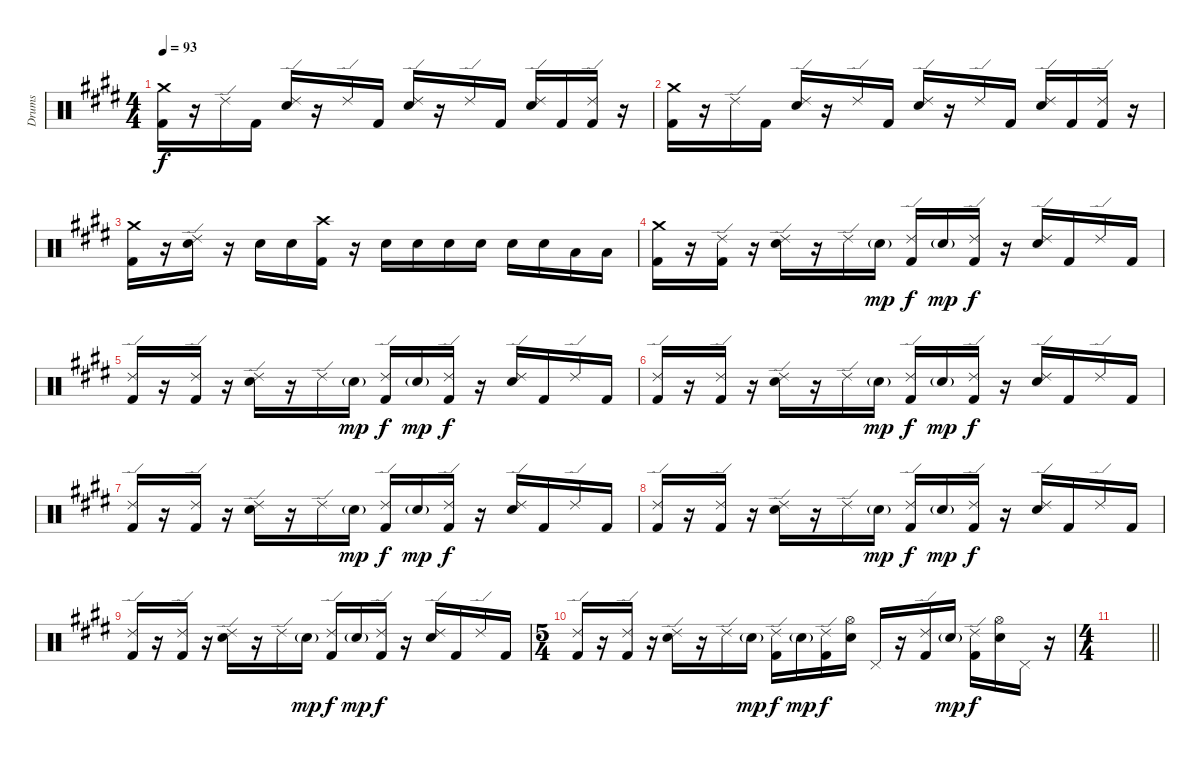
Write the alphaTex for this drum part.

\track ("Drums" "Drums") {instrument percussion}
\staff {score}
\articulation defaults
\ts (4 4)
\tempo 93
\clef neutral
\ks e
("Crash medium (hit)" "Kick (hit) 2").16{dy f} r.16 "Ride (edge) 2".16 "Kick (hit) 2".16 ("Ride (edge) 2" "Snare (hit) 2").16 r.16 "Ride (edge) 2".16 "Kick (hit) 2".16 ("Ride (edge) 2" "Snare (hit) 2").16 r.16 "Ride (edge) 2".16 "Kick (hit) 2".16 ("Ride (edge) 2" "Snare (hit) 2").16 "Kick (hit) 2".16 ("Ride (edge) 2" "Kick (hit) 2").16 r.16 |
("Crash medium (hit)" "Kick (hit) 2").16 r.16 "Ride (edge) 2".16 "Kick (hit) 2".16 ("Ride (edge) 2" "Snare (hit) 2").16 r.16 "Ride (edge) 2".16 "Kick (hit) 2".16 ("Ride (edge) 2" "Snare (hit) 2").16 r.16 "Ride (edge) 2".16 "Kick (hit) 2".16 ("Ride (edge) 2" "Snare (hit) 2").16 "Kick (hit) 2".16 ("Ride (edge) 2" "Kick (hit) 2").16 r.16 |
("Crash medium (hit)" "Kick (hit) 2").16 r.16 ("Ride (edge) 2" "Snare (hit) 2").16 r.16 "Snare (hit) 2".16 "Snare (hit) 2".16 ("Crash high (hit)" "Kick (hit) 2").16 r.16 "Snare (hit) 2".16 "Snare (hit) 2".16 "Snare (hit) 2".16 "Snare (hit) 2".16 "Snare (hit) 2".16 "Snare (hit) 2".16 "Low Tom (hit)".16 "Low Tom (hit)".16 |
("Crash medium (hit)" "Kick (hit) 2").16 r.16 ("Ride (edge) 2" "Kick (hit) 2").16 r.16 ("Ride (edge) 2" "Snare (hit) 2").16 r.16 "Ride (edge) 2".16 "Snare (hit) 2"{g}.16{dy mp} ("Ride (edge) 2" "Kick (hit) 2").16{dy f} "Snare (hit) 2"{g}.16{dy mp} ("Ride (edge) 2" "Kick (hit) 2").16{dy f} r.16 ("Ride (edge) 2" "Snare (hit) 2").16 "Kick (hit) 2".16 "Ride (edge) 2".16 "Kick (hit) 2".16 |
("Ride (edge) 2" "Kick (hit) 2").16 r.16 ("Ride (edge) 2" "Kick (hit) 2").16 r.16 ("Ride (edge) 2" "Snare (hit) 2").16 r.16 "Ride (edge) 2".16 "Snare (hit) 2"{g}.16{dy mp} ("Ride (edge) 2" "Kick (hit) 2").16{dy f} "Snare (hit) 2"{g}.16{dy mp} ("Ride (edge) 2" "Kick (hit) 2").16{dy f} r.16 ("Ride (edge) 2" "Snare (hit) 2").16 "Kick (hit) 2".16 "Ride (edge) 2".16 "Kick (hit) 2".16 |
("Ride (edge) 2" "Kick (hit) 2").16 r.16 ("Ride (edge) 2" "Kick (hit) 2").16 r.16 ("Ride (edge) 2" "Snare (hit) 2").16 r.16 "Ride (edge) 2".16 "Snare (hit) 2"{g}.16{dy mp} ("Ride (edge) 2" "Kick (hit) 2").16{dy f} "Snare (hit) 2"{g}.16{dy mp} ("Ride (edge) 2" "Kick (hit) 2").16{dy f} r.16 ("Ride (edge) 2" "Snare (hit) 2").16 "Kick (hit) 2".16 "Ride (edge) 2".16 "Kick (hit) 2".16 |
("Ride (edge) 2" "Kick (hit) 2").16 r.16 ("Ride (edge) 2" "Kick (hit) 2").16 r.16 ("Ride (edge) 2" "Snare (hit) 2").16 r.16 "Ride (edge) 2".16 "Snare (hit) 2"{g}.16{dy mp} ("Ride (edge) 2" "Kick (hit) 2").16{dy f} "Snare (hit) 2"{g}.16{dy mp} ("Ride (edge) 2" "Kick (hit) 2").16{dy f} r.16 ("Ride (edge) 2" "Snare (hit) 2").16 "Kick (hit) 2".16 "Ride (edge) 2".16 "Kick (hit) 2".16 |
("Ride (edge) 2" "Kick (hit) 2").16 r.16 ("Ride (edge) 2" "Kick (hit) 2").16 r.16 ("Ride (edge) 2" "Snare (hit) 2").16 r.16 "Ride (edge) 2".16 "Snare (hit) 2"{g}.16{dy mp} ("Ride (edge) 2" "Kick (hit) 2").16{dy f} "Snare (hit) 2"{g}.16{dy mp} ("Ride (edge) 2" "Kick (hit) 2").16{dy f} r.16 ("Ride (edge) 2" "Snare (hit) 2").16 "Kick (hit) 2".16 "Ride (edge) 2".16 "Kick (hit) 2".16 |
("Ride (edge) 2" "Kick (hit) 2").16 r.16 ("Ride (edge) 2" "Kick (hit) 2").16 r.16 ("Ride (edge) 2" "Snare (hit) 2").16 r.16 "Ride (edge) 2".16 "Snare (hit) 2"{g}.16{dy mp} ("Ride (edge) 2" "Kick (hit) 2").16{dy f} "Snare (hit) 2"{g}.16{dy mp} ("Ride (edge) 2" "Kick (hit) 2").16{dy f} r.16 ("Ride (edge) 2" "Snare (hit) 2").16 "Kick (hit) 2".16 "Ride (edge) 2".16 "Kick (hit) 2".16 |
\ts (5 4)
("Ride (edge) 2" "Kick (hit) 2").16 r.16 ("Ride (edge) 2" "Kick (hit) 2").16 r.16 ("Ride (edge) 2" "Snare (hit) 2").16 r.16 "Ride (edge) 2".16 "Snare (hit) 2"{g}.16{dy mp} ("Ride (edge) 2" "Kick (hit) 2").16{dy f} "Snare (hit) 2"{g}.16{dy mp} ("Ride (edge) 2" "Kick (hit) 2").16{dy f} ("Hi-Hat (open)" "Snare (hit) 2").16 "Pedal Hi-Hat (hit)".16 r.16 ("Ride (edge) 2" "Kick (hit) 2").16 "Snare (hit) 2"{g}.16{dy mp} ("Ride (edge) 2" "Kick (hit) 2").16{dy f} ("Hi-Hat (open)" "Snare (hit) 2").16 "Pedal Hi-Hat (hit)".16 r.16 |
\ts (4 4)
\barLineRight lightlight
